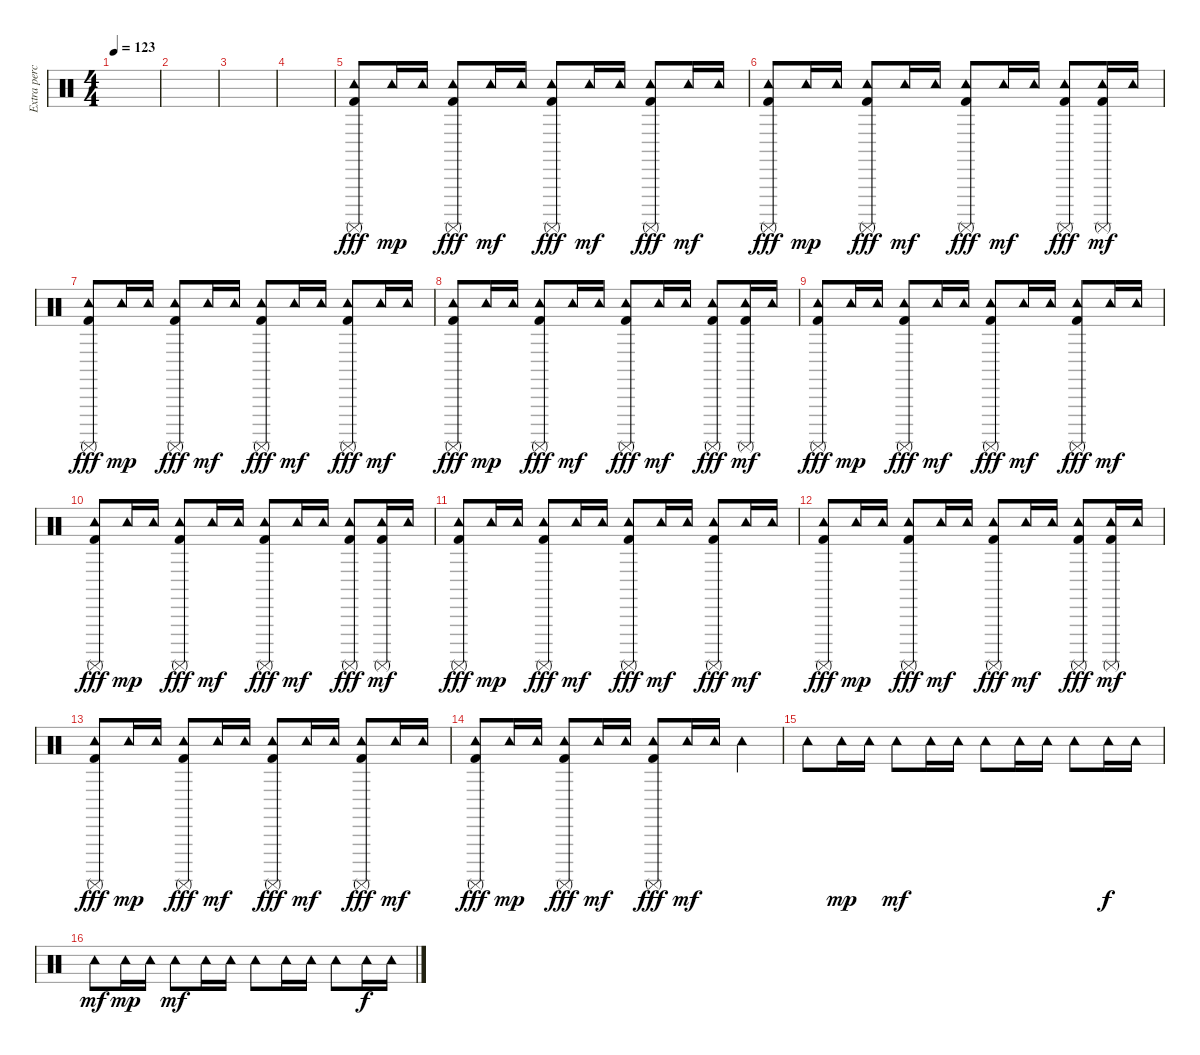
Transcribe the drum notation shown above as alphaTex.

\track ("Extra percussion" "Extra perc") {instrument percussion}
\staff {score}
\articulation defaults
\ts (4 4)
\tempo 123
\clef neutral
\ks c
|
|
|
|
("Tambourine (hit)" "Surdo (mute)" "Kick (hit) 2").8{dy fff} "Tambourine (hit)".16{dy mp} "Tambourine (hit)".16 ("Tambourine (hit)" "Surdo (mute)" "Kick (hit) 2").8{dy fff} "Tambourine (hit)".16{dy mf} "Tambourine (hit)".16 ("Tambourine (hit)" "Surdo (mute)" "Kick (hit) 2").8{dy fff} "Tambourine (hit)".16{dy mf} "Tambourine (hit)".16 ("Tambourine (hit)" "Surdo (mute)" "Kick (hit) 2").8{dy fff} "Tambourine (hit)".16{dy mf} "Tambourine (hit)".16 |
("Tambourine (hit)" "Surdo (mute)" "Kick (hit) 2").8{dy fff} "Tambourine (hit)".16{dy mp} "Tambourine (hit)".16 ("Tambourine (hit)" "Surdo (mute)" "Kick (hit) 2").8{dy fff} "Tambourine (hit)".16{dy mf} "Tambourine (hit)".16 ("Tambourine (hit)" "Surdo (mute)" "Kick (hit) 2").8{dy fff} "Tambourine (hit)".16{dy mf} "Tambourine (hit)".16 ("Tambourine (hit)" "Surdo (mute)" "Kick (hit) 2").8{dy fff} ("Tambourine (hit)" "Surdo (mute)" "Kick (hit) 2").16{dy mf} "Tambourine (hit)".16 |
("Tambourine (hit)" "Surdo (mute)" "Kick (hit) 2").8{dy fff} "Tambourine (hit)".16{dy mp} "Tambourine (hit)".16 ("Tambourine (hit)" "Surdo (mute)" "Kick (hit) 2").8{dy fff} "Tambourine (hit)".16{dy mf} "Tambourine (hit)".16 ("Tambourine (hit)" "Surdo (mute)" "Kick (hit) 2").8{dy fff} "Tambourine (hit)".16{dy mf} "Tambourine (hit)".16 ("Tambourine (hit)" "Surdo (mute)" "Kick (hit) 2").8{dy fff} "Tambourine (hit)".16{dy mf} "Tambourine (hit)".16 |
("Tambourine (hit)" "Surdo (mute)" "Kick (hit) 2").8{dy fff} "Tambourine (hit)".16{dy mp} "Tambourine (hit)".16 ("Tambourine (hit)" "Surdo (mute)" "Kick (hit) 2").8{dy fff} "Tambourine (hit)".16{dy mf} "Tambourine (hit)".16 ("Tambourine (hit)" "Surdo (mute)" "Kick (hit) 2").8{dy fff} "Tambourine (hit)".16{dy mf} "Tambourine (hit)".16 ("Tambourine (hit)" "Surdo (mute)" "Kick (hit) 2").8{dy fff} ("Tambourine (hit)" "Surdo (mute)" "Kick (hit) 2").16{dy mf} "Tambourine (hit)".16 |
("Tambourine (hit)" "Surdo (mute)" "Kick (hit) 2").8{dy fff} "Tambourine (hit)".16{dy mp} "Tambourine (hit)".16 ("Tambourine (hit)" "Surdo (mute)" "Kick (hit) 2").8{dy fff} "Tambourine (hit)".16{dy mf} "Tambourine (hit)".16 ("Tambourine (hit)" "Surdo (mute)" "Kick (hit) 2").8{dy fff} "Tambourine (hit)".16{dy mf} "Tambourine (hit)".16 ("Tambourine (hit)" "Surdo (mute)" "Kick (hit) 2").8{dy fff} "Tambourine (hit)".16{dy mf} "Tambourine (hit)".16 |
("Tambourine (hit)" "Surdo (mute)" "Kick (hit) 2").8{dy fff} "Tambourine (hit)".16{dy mp} "Tambourine (hit)".16 ("Tambourine (hit)" "Surdo (mute)" "Kick (hit) 2").8{dy fff} "Tambourine (hit)".16{dy mf} "Tambourine (hit)".16 ("Tambourine (hit)" "Surdo (mute)" "Kick (hit) 2").8{dy fff} "Tambourine (hit)".16{dy mf} "Tambourine (hit)".16 ("Tambourine (hit)" "Surdo (mute)" "Kick (hit) 2").8{dy fff} ("Tambourine (hit)" "Surdo (mute)" "Kick (hit) 2").16{dy mf} "Tambourine (hit)".16 |
("Tambourine (hit)" "Surdo (mute)" "Kick (hit) 2").8{dy fff} "Tambourine (hit)".16{dy mp} "Tambourine (hit)".16 ("Tambourine (hit)" "Surdo (mute)" "Kick (hit) 2").8{dy fff} "Tambourine (hit)".16{dy mf} "Tambourine (hit)".16 ("Tambourine (hit)" "Surdo (mute)" "Kick (hit) 2").8{dy fff} "Tambourine (hit)".16{dy mf} "Tambourine (hit)".16 ("Tambourine (hit)" "Surdo (mute)" "Kick (hit) 2").8{dy fff} "Tambourine (hit)".16{dy mf} "Tambourine (hit)".16 |
("Tambourine (hit)" "Surdo (mute)" "Kick (hit) 2").8{dy fff} "Tambourine (hit)".16{dy mp} "Tambourine (hit)".16 ("Tambourine (hit)" "Surdo (mute)" "Kick (hit) 2").8{dy fff} "Tambourine (hit)".16{dy mf} "Tambourine (hit)".16 ("Tambourine (hit)" "Surdo (mute)" "Kick (hit) 2").8{dy fff} "Tambourine (hit)".16{dy mf} "Tambourine (hit)".16 ("Tambourine (hit)" "Surdo (mute)" "Kick (hit) 2").8{dy fff} ("Tambourine (hit)" "Surdo (mute)" "Kick (hit) 2").16{dy mf} "Tambourine (hit)".16 |
("Tambourine (hit)" "Surdo (mute)" "Kick (hit) 2").8{dy fff} "Tambourine (hit)".16{dy mp} "Tambourine (hit)".16 ("Tambourine (hit)" "Surdo (mute)" "Kick (hit) 2").8{dy fff} "Tambourine (hit)".16{dy mf} "Tambourine (hit)".16 ("Tambourine (hit)" "Surdo (mute)" "Kick (hit) 2").8{dy fff} "Tambourine (hit)".16{dy mf} "Tambourine (hit)".16 ("Tambourine (hit)" "Surdo (mute)" "Kick (hit) 2").8{dy fff} "Tambourine (hit)".16{dy mf} "Tambourine (hit)".16 |
("Tambourine (hit)" "Surdo (mute)" "Kick (hit) 2").8{dy fff} "Tambourine (hit)".16{dy mp} "Tambourine (hit)".16 ("Tambourine (hit)" "Surdo (mute)" "Kick (hit) 2").8{dy fff} "Tambourine (hit)".16{dy mf} "Tambourine (hit)".16 ("Tambourine (hit)" "Surdo (mute)" "Kick (hit) 2").8{dy fff} "Tambourine (hit)".16{dy mf} "Tambourine (hit)".16 "Tambourine (hit)".4 |
"Tambourine (hit)".8 "Tambourine (hit)".16{dy mp} "Tambourine (hit)".16 "Tambourine (hit)".8{dy mf} "Tambourine (hit)".16 "Tambourine (hit)".16 "Tambourine (hit)".8 "Tambourine (hit)".16 "Tambourine (hit)".16 "Tambourine (hit)".8 "Tambourine (hit)".16{dy f} "Tambourine (hit)".16 |
"Tambourine (hit)".8{dy mf} "Tambourine (hit)".16{dy mp} "Tambourine (hit)".16 "Tambourine (hit)".8{dy mf} "Tambourine (hit)".16 "Tambourine (hit)".16 "Tambourine (hit)".8 "Tambourine (hit)".16 "Tambourine (hit)".16 "Tambourine (hit)".8 "Tambourine (hit)".16{dy f} "Tambourine (hit)".16
